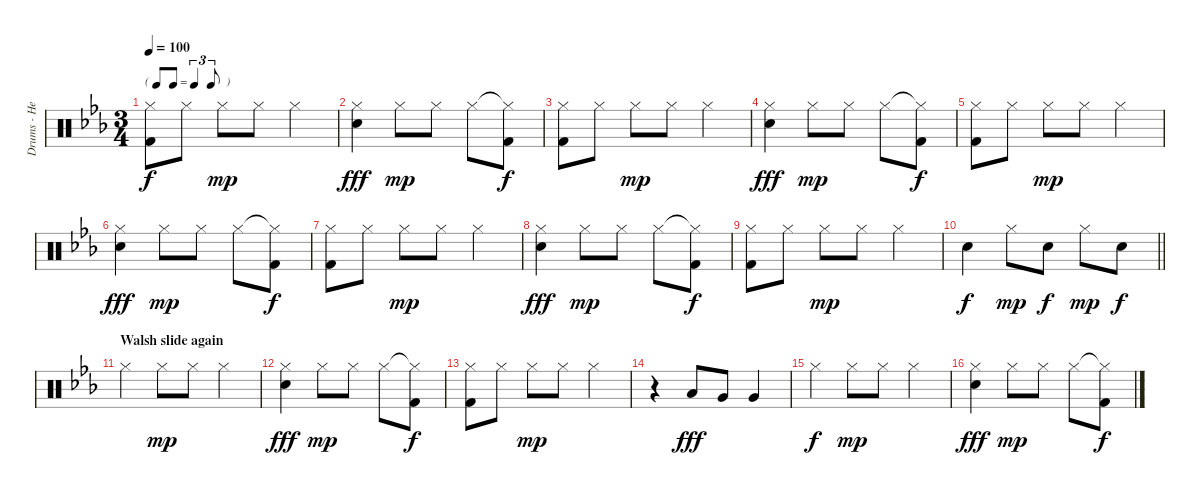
\track ("Drums - Henley" "Drums - He") {instrument percussion}
\staff {score}
\articulation defaults
\ts (3 4)
\tf triplet8th
\tempo 100
\clef neutral
\ks eb
("Hi-Hat (closed)" "Kick (hit) 2").8{dy f} "Hi-Hat (closed)".8 "Hi-Hat (closed)".8{dy mp} "Hi-Hat (closed)".8 "Hi-Hat (closed)".4 |
("Hi-Hat (closed)" "Electric Snare (hit)").4{dy fff} "Hi-Hat (closed)".8{dy mp} "Hi-Hat (closed)".8 "Hi-Hat (closed)".8 ("Hi-Hat (closed)"{t} "Kick (hit) 2").8{dy f} |
("Hi-Hat (closed)" "Kick (hit) 2").8 "Hi-Hat (closed)".8 "Hi-Hat (closed)".8{dy mp} "Hi-Hat (closed)".8 "Hi-Hat (closed)".4 |
("Hi-Hat (closed)" "Electric Snare (hit)").4{dy fff} "Hi-Hat (closed)".8{dy mp} "Hi-Hat (closed)".8 "Hi-Hat (closed)".8 ("Hi-Hat (closed)"{t} "Kick (hit) 2").8{dy f} |
("Hi-Hat (closed)" "Kick (hit) 2").8 "Hi-Hat (closed)".8 "Hi-Hat (closed)".8{dy mp} "Hi-Hat (closed)".8 "Hi-Hat (closed)".4 |
("Hi-Hat (closed)" "Electric Snare (hit)").4{dy fff} "Hi-Hat (closed)".8{dy mp} "Hi-Hat (closed)".8 "Hi-Hat (closed)".8 ("Hi-Hat (closed)"{t} "Kick (hit) 2").8{dy f} |
("Hi-Hat (closed)" "Kick (hit) 2").8 "Hi-Hat (closed)".8 "Hi-Hat (closed)".8{dy mp} "Hi-Hat (closed)".8 "Hi-Hat (closed)".4 |
("Hi-Hat (closed)" "Electric Snare (hit)").4{dy fff} "Hi-Hat (closed)".8{dy mp} "Hi-Hat (closed)".8 "Hi-Hat (closed)".8 ("Hi-Hat (closed)"{t} "Kick (hit) 2").8{dy f} |
("Hi-Hat (closed)" "Kick (hit) 2").8 "Hi-Hat (closed)".8 "Hi-Hat (closed)".8{dy mp} "Hi-Hat (closed)".8 "Hi-Hat (closed)".4 |
\barLineRight lightlight "Electric Snare (hit)".4{dy f} "Hi-Hat (closed)".8{dy mp} "Electric Snare (hit)".8{dy f} "Hi-Hat (closed)".8{dy mp} "Electric Snare (hit)".8{dy f}
|
\section ("" "Walsh slide again")
"Hi-Hat (closed)".4 "Hi-Hat (closed)".8{dy mp} "Hi-Hat (closed)".8 "Hi-Hat (closed)".4 |
("Hi-Hat (closed)" "Electric Snare (hit)").4{dy fff} "Hi-Hat (closed)".8{dy mp} "Hi-Hat (closed)".8 "Hi-Hat (closed)".8 ("Hi-Hat (closed)"{t} "Kick (hit) 2").8{dy f} |
("Hi-Hat (closed)" "Kick (hit) 2").8 "Hi-Hat (closed)".8 "Hi-Hat (closed)".8{dy mp} "Hi-Hat (closed)".8 "Hi-Hat (closed)".4 |
r.4 "Low Floor Tom (hit)".8{dy fff} "Very Low Tom (hit)".8 "Very Low Tom (hit)".4 |
"Hi-Hat (closed)".4{dy f} "Hi-Hat (closed)".8{dy mp} "Hi-Hat (closed)".8 "Hi-Hat (closed)".4 |
("Hi-Hat (closed)" "Electric Snare (hit)").4{dy fff} "Hi-Hat (closed)".8{dy mp} "Hi-Hat (closed)".8 "Hi-Hat (closed)".8 ("Hi-Hat (closed)"{t} "Kick (hit) 2").8{dy f}
